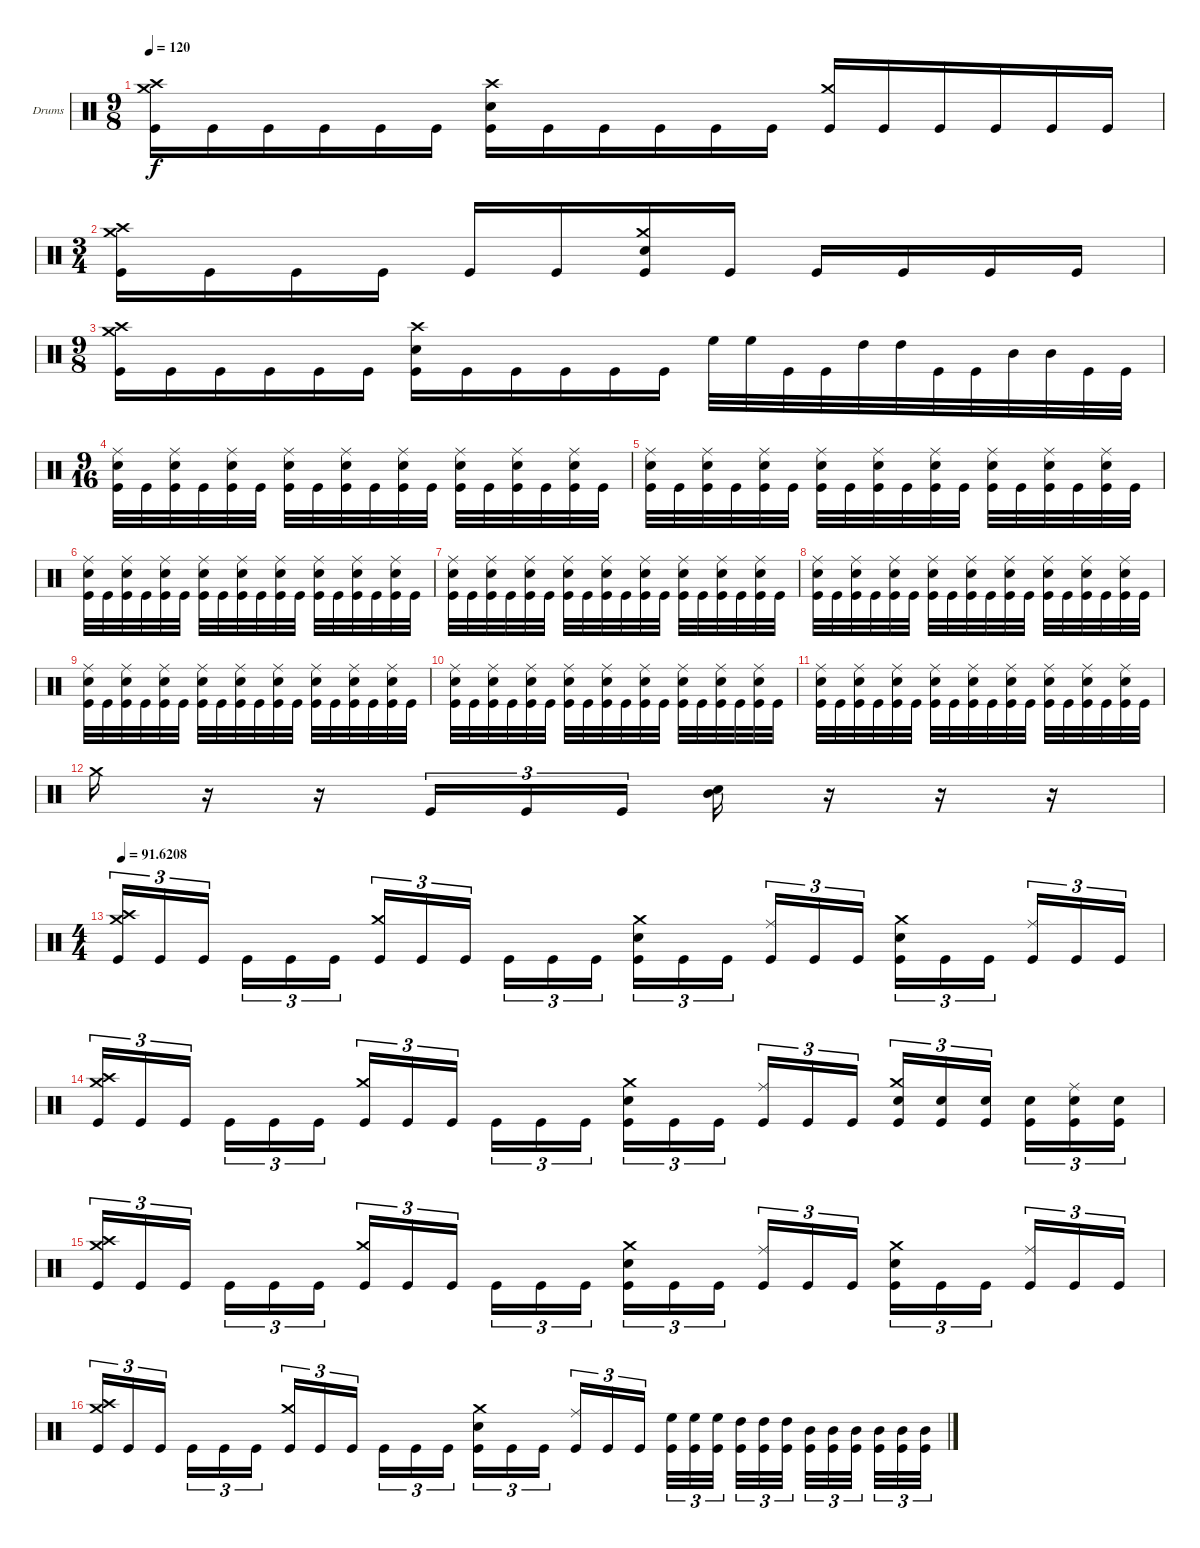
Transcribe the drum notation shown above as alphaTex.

\defaultSystemsLayout 4
\bracketExtendMode groupsimilarinstruments
\firstSystemTrackNameOrientation horizontal
\otherSystemsTrackNameOrientation horizontal
\track ("Drumkit" "Drums") {instrument percussion}
\staff {score}
\articulation defaults
\ts (9 8)
\tempo 120
\clef neutral
\ks c
("Kick (hit)" "Crash medium (hit)" "Crash high (hit)").16{dy f} "Kick (hit)".16 "Kick (hit)".16 "Kick (hit)".16 "Kick (hit)".16 "Kick (hit)".16 ("Crash high (hit)" "Snare (hit) 2" "Kick (hit)").16 "Kick (hit)".16 "Kick (hit)".16 "Kick (hit)".16 "Kick (hit)".16 "Kick (hit)".16 ("Kick (hit)" "Crash medium (hit)").16{beam invert} "Kick (hit)".16 "Kick (hit)".16 "Kick (hit)".16 "Kick (hit)".16 "Kick (hit)".16 |
\ts (3 4)
("Crash medium (hit)" "Crash high (hit)" "Kick (hit)").16 "Kick (hit)".16 "Kick (hit)".16 "Kick (hit)".16 "Kick (hit)".16 "Kick (hit)".16 ("Kick (hit)" "Snare (hit) 2" "Crash medium (hit)").16 "Kick (hit)".16 "Kick (hit)".16 "Kick (hit)".16 "Kick (hit)".16 "Kick (hit)".16 |
\ts (9 8)
("Kick (hit)" "Crash medium (hit)" "Crash high (hit)").16 "Kick (hit)".16 "Kick (hit)".16 "Kick (hit)".16 "Kick (hit)".16 "Kick (hit)".16 ("Crash high (hit)" "Snare (hit) 2" "Kick (hit)").16 "Kick (hit)".16 "Kick (hit)".16 "Kick (hit)".16 "Kick (hit)".16 "Kick (hit)".16 "High Floor Tom (hit)".32{beam invert} "High Floor Tom (hit)".32 "Kick (hit)".32 "Kick (hit)".32 "High Tom (hit)".32 "High Tom (hit)".32 "Kick (hit)".32 "Kick (hit)".32 "Mid Tom (hit)".32 "Mid Tom (hit)".32 "Kick (hit)".32 "Kick (hit)".32 |
\ts (9 16)
("Snare (hit) 2" "Kick (hit)" "Ride (middle)").32 "Kick (hit)".32 ("Kick (hit)" "Snare (hit) 2" "Ride (middle)").32 "Kick (hit)".32 ("Kick (hit)" "Snare (hit) 2" "Ride (middle)").32 "Kick (hit)".32 ("Kick (hit)" "Snare (hit) 2" "Ride (middle)").32 "Kick (hit)".32 ("Kick (hit)" "Snare (hit) 2" "Ride (middle)").32 "Kick (hit)".32 ("Kick (hit)" "Snare (hit) 2" "Ride (middle)").32 "Kick (hit)".32 ("Kick (hit)" "Snare (hit) 2" "Ride (middle)").32 "Kick (hit)".32 ("Kick (hit)" "Snare (hit) 2" "Ride (middle)").32 "Kick (hit)".32 ("Kick (hit)" "Snare (hit) 2" "Ride (middle)").32 "Kick (hit)".32 |
("Snare (hit) 2" "Kick (hit)" "Ride (middle)").32 "Kick (hit)".32 ("Kick (hit)" "Snare (hit) 2" "Ride (middle)").32 "Kick (hit)".32 ("Kick (hit)" "Snare (hit) 2" "Ride (middle)").32 "Kick (hit)".32 ("Kick (hit)" "Snare (hit) 2" "Ride (middle)").32 "Kick (hit)".32 ("Kick (hit)" "Snare (hit) 2" "Ride (middle)").32 "Kick (hit)".32 ("Kick (hit)" "Snare (hit) 2" "Ride (middle)").32 "Kick (hit)".32 ("Kick (hit)" "Snare (hit) 2" "Ride (middle)").32 "Kick (hit)".32 ("Kick (hit)" "Snare (hit) 2" "Ride (middle)").32 "Kick (hit)".32 ("Kick (hit)" "Snare (hit) 2" "Ride (middle)").32 "Kick (hit)".32 |
("Snare (hit) 2" "Kick (hit)" "Ride (middle)").32 "Kick (hit)".32 ("Kick (hit)" "Snare (hit) 2" "Ride (middle)").32 "Kick (hit)".32 ("Kick (hit)" "Snare (hit) 2" "Ride (middle)").32 "Kick (hit)".32 ("Kick (hit)" "Snare (hit) 2" "Ride (middle)").32 "Kick (hit)".32 ("Kick (hit)" "Snare (hit) 2" "Ride (middle)").32 "Kick (hit)".32 ("Kick (hit)" "Snare (hit) 2" "Ride (middle)").32 "Kick (hit)".32 ("Kick (hit)" "Snare (hit) 2" "Ride (middle)").32 "Kick (hit)".32 ("Kick (hit)" "Snare (hit) 2" "Ride (middle)").32 "Kick (hit)".32 ("Kick (hit)" "Snare (hit) 2" "Ride (middle)").32 "Kick (hit)".32 |
("Snare (hit) 2" "Kick (hit)" "Ride (middle)").32 "Kick (hit)".32 ("Kick (hit)" "Snare (hit) 2" "Ride (middle)").32 "Kick (hit)".32 ("Kick (hit)" "Snare (hit) 2" "Ride (middle)").32 "Kick (hit)".32 ("Kick (hit)" "Snare (hit) 2" "Ride (middle)").32 "Kick (hit)".32 ("Kick (hit)" "Snare (hit) 2" "Ride (middle)").32 "Kick (hit)".32 ("Kick (hit)" "Snare (hit) 2" "Ride (middle)").32 "Kick (hit)".32 ("Kick (hit)" "Snare (hit) 2" "Ride (middle)").32 "Kick (hit)".32 ("Kick (hit)" "Snare (hit) 2" "Ride (middle)").32 "Kick (hit)".32 ("Kick (hit)" "Snare (hit) 2" "Ride (middle)").32 "Kick (hit)".32 |
("Snare (hit) 2" "Kick (hit)" "Ride (middle)").32 "Kick (hit)".32 ("Kick (hit)" "Snare (hit) 2" "Ride (middle)").32 "Kick (hit)".32 ("Kick (hit)" "Snare (hit) 2" "Ride (middle)").32 "Kick (hit)".32 ("Kick (hit)" "Snare (hit) 2" "Ride (middle)").32 "Kick (hit)".32 ("Kick (hit)" "Snare (hit) 2" "Ride (middle)").32 "Kick (hit)".32 ("Kick (hit)" "Snare (hit) 2" "Ride (middle)").32 "Kick (hit)".32 ("Kick (hit)" "Snare (hit) 2" "Ride (middle)").32 "Kick (hit)".32 ("Kick (hit)" "Snare (hit) 2" "Ride (middle)").32 "Kick (hit)".32 ("Kick (hit)" "Snare (hit) 2" "Ride (middle)").32 "Kick (hit)".32 |
("Snare (hit) 2" "Kick (hit)" "Ride (middle)").32 "Kick (hit)".32 ("Kick (hit)" "Snare (hit) 2" "Ride (middle)").32 "Kick (hit)".32 ("Kick (hit)" "Snare (hit) 2" "Ride (middle)").32 "Kick (hit)".32 ("Kick (hit)" "Snare (hit) 2" "Ride (middle)").32 "Kick (hit)".32 ("Kick (hit)" "Snare (hit) 2" "Ride (middle)").32 "Kick (hit)".32 ("Kick (hit)" "Snare (hit) 2" "Ride (middle)").32 "Kick (hit)".32 ("Kick (hit)" "Snare (hit) 2" "Ride (middle)").32 "Kick (hit)".32 ("Kick (hit)" "Snare (hit) 2" "Ride (middle)").32 "Kick (hit)".32 ("Kick (hit)" "Snare (hit) 2" "Ride (middle)").32 "Kick (hit)".32 |
("Snare (hit) 2" "Kick (hit)" "Ride (middle)").32 "Kick (hit)".32 ("Kick (hit)" "Snare (hit) 2" "Ride (middle)").32 "Kick (hit)".32 ("Kick (hit)" "Snare (hit) 2" "Ride (middle)").32 "Kick (hit)".32 ("Kick (hit)" "Snare (hit) 2" "Ride (middle)").32 "Kick (hit)".32 ("Kick (hit)" "Snare (hit) 2" "Ride (middle)").32 "Kick (hit)".32 ("Kick (hit)" "Snare (hit) 2" "Ride (middle)").32 "Kick (hit)".32 ("Kick (hit)" "Snare (hit) 2" "Ride (middle)").32 "Kick (hit)".32 ("Kick (hit)" "Snare (hit) 2" "Ride (middle)").32 "Kick (hit)".32 ("Kick (hit)" "Snare (hit) 2" "Ride (middle)").32 "Kick (hit)".32 |
("Snare (hit) 2" "Kick (hit)" "Ride (middle)").32 "Kick (hit)".32 ("Kick (hit)" "Snare (hit) 2" "Ride (middle)").32 "Kick (hit)".32 ("Kick (hit)" "Snare (hit) 2" "Ride (middle)").32 "Kick (hit)".32 ("Kick (hit)" "Snare (hit) 2" "Ride (middle)").32 "Kick (hit)".32 ("Kick (hit)" "Snare (hit) 2" "Ride (middle)").32 "Kick (hit)".32 ("Kick (hit)" "Snare (hit) 2" "Ride (middle)").32 "Kick (hit)".32 ("Kick (hit)" "Snare (hit) 2" "Ride (middle)").32 "Kick (hit)".32 ("Kick (hit)" "Snare (hit) 2" "Ride (middle)").32 "Kick (hit)".32 ("Kick (hit)" "Snare (hit) 2" "Ride (middle)").32 "Kick (hit)".32 |
"Crash medium (hit)".16 r.16 r.16 "Kick (hit)".16{tu (3 2)} "Kick (hit)".16{tu (3 2)} "Kick (hit)".16{tu (3 2)} ("Snare (hit) 2" "Mid Tom (hit)").16 r.16 r.16 r.16 |
\ts (4 4)
\tempo
91.6208 ("Crash medium (hit)" "Crash high (hit)" "Kick (hit)").16{tu (3 2)} "Kick (hit)".16{tu (3 2)} "Kick (hit)".16{tu (3 2)} "Kick (hit)".16{tu (3 2) beam invert} "Kick (hit)".16{tu (3 2)} "Kick (hit)".16{tu (3 2)} ("Kick (hit)" "Crash medium (hit)").16{tu (3 2) beam invert} "Kick (hit)".16{tu (3 2)} "Kick (hit)".16{tu (3 2)} "Kick (hit)".16{tu (3 2) beam invert} "Kick (hit)".16{tu (3 2)} "Kick (hit)".16{tu (3 2)} ("Kick (hit)" "Snare (hit) 2" "Crash medium (hit)").16{tu (3 2)} "Kick (hit)".16{tu (3 2)} "Kick (hit)".16{tu (3 2)} ("Kick (hit)" "Ride (middle)").16{tu (3 2) beam invert} "Kick (hit)".16{tu (3 2)} "Kick (hit)".16{tu (3 2)} ("Kick (hit)" "Snare (hit) 2" "Crash medium (hit)").16{tu (3 2)} "Kick (hit)".16{tu (3 2)} "Kick (hit)".16{tu (3 2)} ("Kick (hit)" "Ride (middle)").16{tu (3 2) beam invert} "Kick (hit)".16{tu (3 2)} "Kick (hit)".16{tu (3 2)} |
("Crash medium (hit)" "Crash high (hit)" "Kick (hit)").16{tu (3 2)} "Kick (hit)".16{tu (3 2)} "Kick (hit)".16{tu (3 2)} "Kick (hit)".16{tu (3 2) beam invert} "Kick (hit)".16{tu (3 2)} "Kick (hit)".16{tu (3 2)} ("Kick (hit)" "Crash medium (hit)").16{tu (3 2) beam invert} "Kick (hit)".16{tu (3 2)} "Kick (hit)".16{tu (3 2)} "Kick (hit)".16{tu (3 2) beam invert} "Kick (hit)".16{tu (3 2)} "Kick (hit)".16{tu (3 2)} ("Kick (hit)" "Snare (hit) 2" "Crash medium (hit)").16{tu (3 2)} "Kick (hit)".16{tu (3 2)} "Kick (hit)".16{tu (3 2)} ("Kick (hit)" "Ride (middle)").16{tu (3 2) beam invert} "Kick (hit)".16{tu (3 2)} "Kick (hit)".16{tu (3 2)} ("Kick (hit)" "Snare (hit) 2" "Crash medium (hit)").16{tu (3 2)} ("Kick (hit)" "Snare (hit) 2").16{tu (3 2)} ("Kick (hit)" "Snare (hit) 2").16{tu (3 2)} ("Kick (hit)" "Snare (hit) 2").16{tu (3 2)} ("Kick (hit)" "Snare (hit) 2" "Ride (middle)").16{tu (3 2)} ("Kick (hit)" "Snare (hit) 2").16{tu (3 2)} |
("Crash medium (hit)" "Crash high (hit)" "Kick (hit)").16{tu (3 2)} "Kick (hit)".16{tu (3 2)} "Kick (hit)".16{tu (3 2)} "Kick (hit)".16{tu (3 2) beam invert} "Kick (hit)".16{tu (3 2)} "Kick (hit)".16{tu (3 2)} ("Kick (hit)" "Crash medium (hit)").16{tu (3 2) beam invert} "Kick (hit)".16{tu (3 2)} "Kick (hit)".16{tu (3 2)} "Kick (hit)".16{tu (3 2) beam invert} "Kick (hit)".16{tu (3 2)} "Kick (hit)".16{tu (3 2)} ("Kick (hit)" "Snare (hit) 2" "Crash medium (hit)").16{tu (3 2)} "Kick (hit)".16{tu (3 2)} "Kick (hit)".16{tu (3 2)} ("Kick (hit)" "Ride (middle)").16{tu (3 2) beam invert} "Kick (hit)".16{tu (3 2)} "Kick (hit)".16{tu (3 2)} ("Kick (hit)" "Snare (hit) 2" "Crash medium (hit)").16{tu (3 2)} "Kick (hit)".16{tu (3 2)} "Kick (hit)".16{tu (3 2)} ("Kick (hit)" "Ride (middle)").16{tu (3 2) beam invert} "Kick (hit)".16{tu (3 2)} "Kick (hit)".16{tu (3 2)} |
("Crash medium (hit)" "Crash high (hit)" "Kick (hit)").16{tu (3 2)} "Kick (hit)".16{tu (3 2)} "Kick (hit)".16{tu (3 2)} "Kick (hit)".16{tu (3 2) beam invert} "Kick (hit)".16{tu (3 2)} "Kick (hit)".16{tu (3 2)} ("Kick (hit)" "Crash medium (hit)").16{tu (3 2) beam invert} "Kick (hit)".16{tu (3 2)} "Kick (hit)".16{tu (3 2)} "Kick (hit)".16{tu (3 2) beam invert} "Kick (hit)".16{tu (3 2)} "Kick (hit)".16{tu (3 2)} ("Kick (hit)" "Snare (hit) 2" "Crash medium (hit)").16{tu (3 2)} "Kick (hit)".16{tu (3 2)} "Kick (hit)".16{tu (3 2)} ("Kick (hit)" "Ride (middle)").16{tu (3 2) beam invert} "Kick (hit)".16{tu (3 2)} "Kick (hit)".16{tu (3 2)} ("Kick (hit)" "High Floor Tom (hit)").32{tu (3 2) beam invert} ("Kick (hit)" "High Floor Tom (hit)").32{tu (3 2)} ("Kick (hit)" "High Floor Tom (hit)").32{tu (3 2)} ("Kick (hit)" "High Tom (hit)").32{tu (3 2) beam invert} ("Kick (hit)" "High Tom (hit)").32{tu (3 2)} ("Kick (hit)" "High Tom (hit)").32{tu (3 2)} ("Mid Tom (hit)" "Kick (hit)").32{tu (3 2) beam invert} ("Mid Tom (hit)" "Kick (hit)").32{tu (3 2)} ("Mid Tom (hit)" "Kick (hit)").32{tu (3 2)} ("Mid Tom (hit)" "Kick (hit)").32{tu (3 2) beam invert} ("Mid Tom (hit)" "Kick (hit)").32{tu (3 2)} ("Mid Tom (hit)" "Kick (hit)").32{tu (3 2)}
